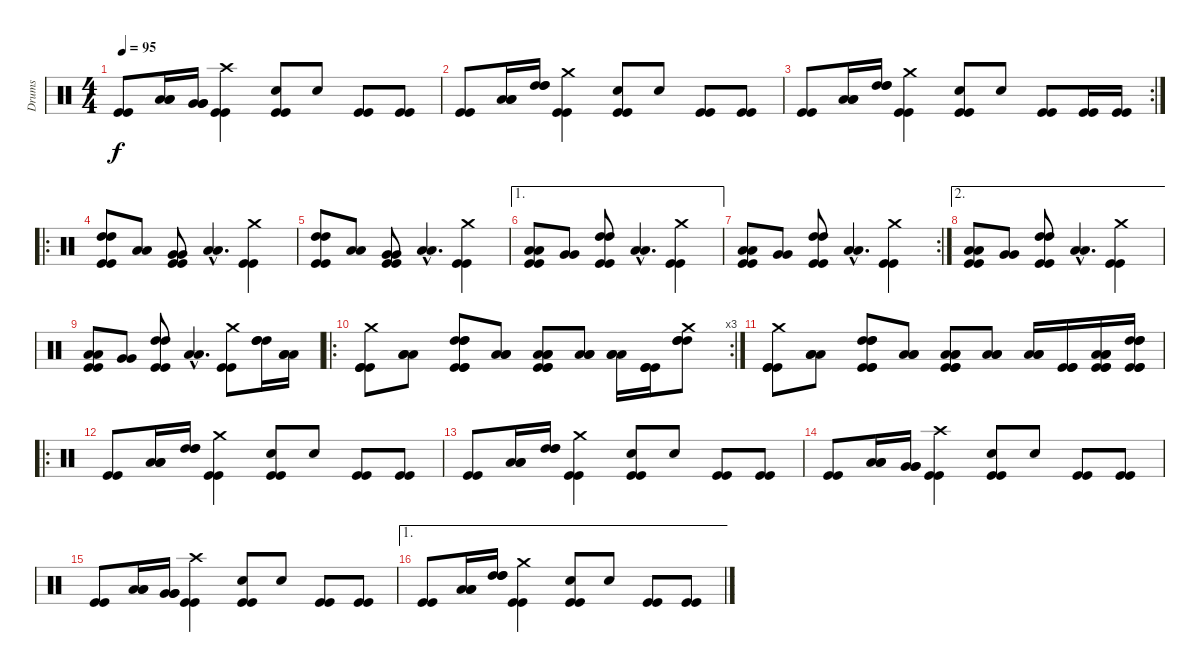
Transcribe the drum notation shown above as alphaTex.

\track ("Drums" "Drums") {instrument percussion}
\staff {score}
\articulation defaults
\ts (4 4)
\tempo 95
\clef neutral
\ks c
("Kick (hit)" "Kick (hit)").8{dy f} ("Low Floor Tom (hit)" "Low Floor Tom (hit)" "Low Floor Tom (hit)").16 ("Very Low Tom (hit)" "Very Low Tom (hit)" "Very Low Tom (hit)").16 ("Crash high (hit)" "Kick (hit)" "Kick (hit)").4 ("Snare (hit) 2" "Kick (hit)" "Kick (hit)").8 "Snare (hit) 2".8 ("Kick (hit)" "Kick (hit)").8 ("Kick (hit)" "Kick (hit)").8 |
("Kick (hit)" "Kick (hit)").8 ("Low Tom (hit)" "Low Tom (hit)" "Low Tom (hit)").16 ("High Tom (hit)" "High Tom (hit)" "High Tom (hit)").16 ("Crash medium (hit)" "Kick (hit)" "Kick (hit)").4 ("Snare (hit) 2" "Kick (hit)" "Kick (hit)").8 "Snare (hit) 2".8 ("Kick (hit)" "Kick (hit)").8 ("Kick (hit)" "Kick (hit)").8 |
\rc 2
("Kick (hit)" "Kick (hit)").8 ("Low Tom (hit)" "Low Tom (hit)" "Low Tom (hit)").16 ("High Tom (hit)" "High Tom (hit)" "High Tom (hit)").16 ("Crash medium (hit)" "Kick (hit)" "Kick (hit)").4 ("Snare (hit) 2" "Kick (hit)" "Kick (hit)").8 "Snare (hit) 2".8 ("Kick (hit)" "Kick (hit)").8 ("Kick (hit)" "Kick (hit)").16 ("Kick (hit)" "Kick (hit)").16 |
\ro
("High Tom (hit)" "High Tom (hit)" "Kick (hit)" "Kick (hit)").8 ("Low Tom (hit)" "Low Tom (hit)").8 ("Very Low Tom (hit)" "Very Low Tom (hit)" "Kick (hit)" "Kick (hit)").8 ("Low Floor Tom (hit)"{hac} "Low Floor Tom (hit)"{hac}).4{d} ("Crash medium (hit)" "Kick (hit)" "Kick (hit)").4 |
("High Tom (hit)" "High Tom (hit)" "Kick (hit)" "Kick (hit)").8 ("Low Tom (hit)" "Low Tom (hit)").8 ("Very Low Tom (hit)" "Very Low Tom (hit)" "Kick (hit)" "Kick (hit)").8 ("Low Floor Tom (hit)"{hac} "Low Floor Tom (hit)"{hac}).4{d} ("Crash medium (hit)" "Kick (hit)" "Kick (hit)").4 |
\ae 1
("Low Floor Tom (hit)" "Low Floor Tom (hit)" "Kick (hit)" "Kick (hit)").8 ("Very Low Tom (hit)" "Very Low Tom (hit)").8 ("High Tom (hit)" "High Tom (hit)" "Kick (hit)" "Kick (hit)").8 ("Low Floor Tom (hit)"{hac} "Low Floor Tom (hit)"{hac}).4{d} ("Crash medium (hit)" "Kick (hit)" "Kick (hit)").4 |
\rc 2
("Low Floor Tom (hit)" "Low Floor Tom (hit)" "Kick (hit)" "Kick (hit)").8 ("Very Low Tom (hit)" "Very Low Tom (hit)").8 ("High Tom (hit)" "High Tom (hit)" "Kick (hit)" "Kick (hit)").8 ("Low Floor Tom (hit)"{hac} "Low Floor Tom (hit)"{hac}).4{d} ("Crash medium (hit)" "Kick (hit)" "Kick (hit)").4 |
\ae 2
("Low Floor Tom (hit)" "Low Floor Tom (hit)" "Kick (hit)" "Kick (hit)").8 ("Very Low Tom (hit)" "Very Low Tom (hit)").8 ("High Tom (hit)" "High Tom (hit)" "Kick (hit)" "Kick (hit)").8 ("Low Floor Tom (hit)"{hac} "Low Floor Tom (hit)"{hac}).4{d} ("Crash medium (hit)" "Kick (hit)" "Kick (hit)").4 |
("Low Floor Tom (hit)" "Low Floor Tom (hit)" "Kick (hit)" "Kick (hit)").8 ("Very Low Tom (hit)" "Very Low Tom (hit)").8 ("High Tom (hit)" "High Tom (hit)" "Kick (hit)" "Kick (hit)").8 ("Low Floor Tom (hit)"{hac} "Low Floor Tom (hit)"{hac}).4{d} ("Crash medium (hit)" "Kick (hit)" "Kick (hit)").8 ("High Tom (hit)" "High Tom (hit)" "High Tom (hit)").16 ("Low Tom (hit)" "Low Tom (hit)" "Low Tom (hit)").16 |
\ro
\rc 3
("Crash medium (hit)" "Kick (hit)" "Kick (hit)" "Kick (hit)").8 ("Low Tom (hit)" "Low Tom (hit)" "Low Tom (hit)").8 ("Kick (hit)" "Kick (hit)" "High Tom (hit)" "High Tom (hit)" "High Tom (hit)" "Kick (hit)").8 ("Low Floor Tom (hit)" "Low Floor Tom (hit)" "Low Floor Tom (hit)").8 ("Kick (hit)" "Kick (hit)" "Low Floor Tom (hit)" "Low Floor Tom (hit)" "Low Floor Tom (hit)" "Kick (hit)").8 ("Low Floor Tom (hit)" "Low Floor Tom (hit)" "Low Floor Tom (hit)").8 ("Low Tom (hit)" "Low Tom (hit)" "Low Tom (hit)").16 ("Kick (hit)" "Kick (hit)" "Kick (hit)").16 ("Crash medium (hit)" "High Tom (hit)" "High Tom (hit)" "High Tom (hit)").8 |
("Crash medium (hit)" "Kick (hit)" "Kick (hit)" "Kick (hit)").8 ("Low Tom (hit)" "Low Tom (hit)" "Low Tom (hit)").8 ("Kick (hit)" "Kick (hit)" "High Tom (hit)" "High Tom (hit)" "High Tom (hit)" "Kick (hit)").8 ("Low Floor Tom (hit)" "Low Floor Tom (hit)" "Low Floor Tom (hit)").8 ("Kick (hit)" "Kick (hit)" "Low Floor Tom (hit)" "Low Floor Tom (hit)" "Low Floor Tom (hit)" "Kick (hit)").8 ("Low Floor Tom (hit)" "Low Floor Tom (hit)" "Low Floor Tom (hit)").8 ("Low Tom (hit)" "Low Tom (hit)" "Low Tom (hit)").16 ("Kick (hit)" "Kick (hit)" "Kick (hit)").16 ("Low Tom (hit)" "Low Tom (hit)" "Low Tom (hit)" "Kick (hit)" "Kick (hit)" "Kick (hit)").16 ("High Tom (hit)" "High Tom (hit)" "High Tom (hit)" "Kick (hit)" "Kick (hit)" "Kick (hit)").16 |
\ro
("Kick (hit)" "Kick (hit)").8 ("Low Tom (hit)" "Low Tom (hit)" "Low Tom (hit)").16 ("High Tom (hit)" "High Tom (hit)" "High Tom (hit)").16 ("Crash medium (hit)" "Kick (hit)" "Kick (hit)").4 ("Snare (hit) 2" "Kick (hit)" "Kick (hit)").8 "Snare (hit) 2".8 ("Kick (hit)" "Kick (hit)").8 ("Kick (hit)" "Kick (hit)").8 |
("Kick (hit)" "Kick (hit)").8 ("Low Tom (hit)" "Low Tom (hit)" "Low Tom (hit)").16 ("High Tom (hit)" "High Tom (hit)" "High Tom (hit)").16 ("Crash medium (hit)" "Kick (hit)" "Kick (hit)").4 ("Snare (hit) 2" "Kick (hit)" "Kick (hit)").8 "Snare (hit) 2".8 ("Kick (hit)" "Kick (hit)").8 ("Kick (hit)" "Kick (hit)").8 |
("Kick (hit)" "Kick (hit)").8 ("Low Floor Tom (hit)" "Low Floor Tom (hit)" "Low Floor Tom (hit)").16 ("Very Low Tom (hit)" "Very Low Tom (hit)" "Very Low Tom (hit)").16 ("Crash high (hit)" "Kick (hit)" "Kick (hit)").4 ("Snare (hit) 2" "Kick (hit)" "Kick (hit)").8 "Snare (hit) 2".8 ("Kick (hit)" "Kick (hit)").8 ("Kick (hit)" "Kick (hit)").8 |
("Kick (hit)" "Kick (hit)").8 ("Low Floor Tom (hit)" "Low Floor Tom (hit)" "Low Floor Tom (hit)").16 ("Very Low Tom (hit)" "Very Low Tom (hit)" "Very Low Tom (hit)").16 ("Crash high (hit)" "Kick (hit)" "Kick (hit)").4 ("Snare (hit) 2" "Kick (hit)" "Kick (hit)").8 "Snare (hit) 2".8 ("Kick (hit)" "Kick (hit)").8 ("Kick (hit)" "Kick (hit)").8 |
\ae 1
("Kick (hit)" "Kick (hit)").8 ("Low Tom (hit)" "Low Tom (hit)" "Low Tom (hit)").16 ("High Tom (hit)" "High Tom (hit)" "High Tom (hit)").16 ("Crash medium (hit)" "Kick (hit)" "Kick (hit)").4 ("Snare (hit) 2" "Kick (hit)" "Kick (hit)").8 "Snare (hit) 2".8 ("Kick (hit)" "Kick (hit)").8 ("Kick (hit)" "Kick (hit)").8
